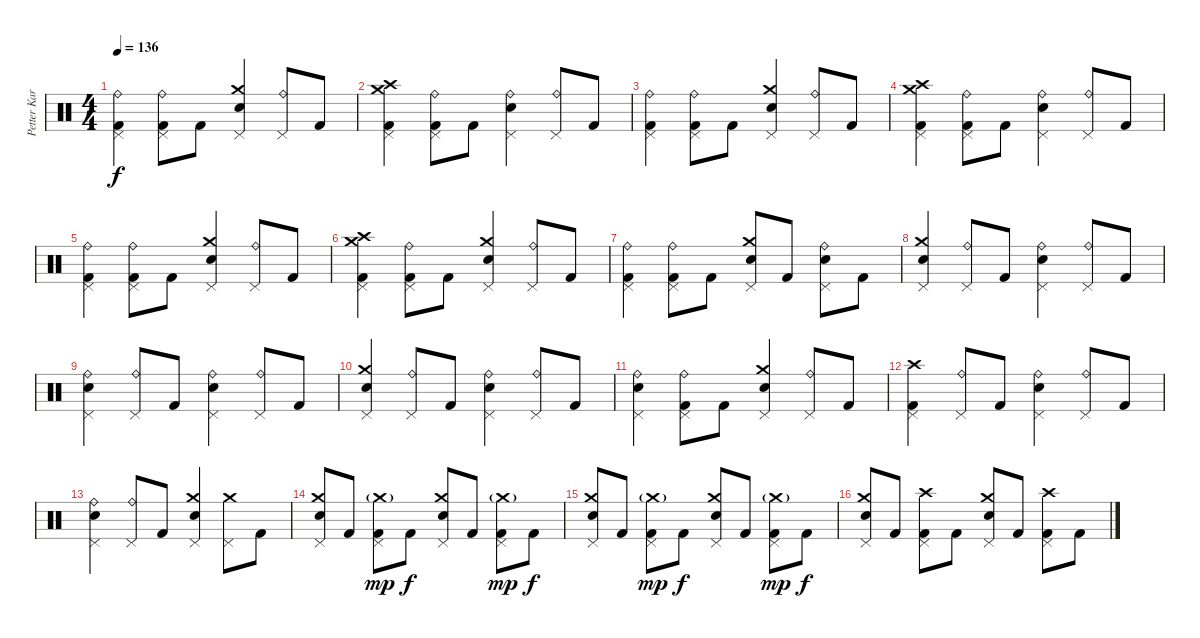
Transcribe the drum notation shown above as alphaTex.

\track ("Petter Karlsson" "Petter Kar") {instrument percussion}
\staff {score}
\articulation defaults
\ts (4 4)
\tempo 136
\clef neutral
\ks c
("Ride (bell)" "Pedal Hi-Hat (hit)" "Kick (hit) 2").4{dy f} ("Ride (bell)" "Pedal Hi-Hat (hit)" "Kick (hit) 2").8 "Kick (hit) 2".8 ("Crash medium (hit)" "Snare (hit) 2" "Pedal Hi-Hat (hit)").4 ("Ride (bell)" "Pedal Hi-Hat (hit)").8 "Kick (hit) 2".8 |
("Crash high (hit)" "Crash medium (hit)" "Pedal Hi-Hat (hit)" "Kick (hit) 2").4 ("Ride (bell)" "Pedal Hi-Hat (hit)" "Kick (hit) 2").8 "Kick (hit) 2".8 ("Ride (bell)" "Snare (hit) 2" "Pedal Hi-Hat (hit)").4 ("Ride (bell)" "Pedal Hi-Hat (hit)").8 "Kick (hit) 2".8 |
("Ride (bell)" "Pedal Hi-Hat (hit)" "Kick (hit) 2").4 ("Ride (bell)" "Pedal Hi-Hat (hit)" "Kick (hit) 2").8 "Kick (hit) 2".8 ("Crash medium (hit)" "Snare (hit) 2" "Pedal Hi-Hat (hit)").4 ("Ride (bell)" "Pedal Hi-Hat (hit)").8 "Kick (hit) 2".8 |
("Crash high (hit)" "Crash medium (hit)" "Pedal Hi-Hat (hit)" "Kick (hit) 2").4 ("Ride (bell)" "Pedal Hi-Hat (hit)" "Kick (hit) 2").8 "Kick (hit) 2".8 ("Ride (bell)" "Snare (hit) 2" "Pedal Hi-Hat (hit)").4 ("Ride (bell)" "Pedal Hi-Hat (hit)").8 "Kick (hit) 2".8 |
("Ride (bell)" "Pedal Hi-Hat (hit)" "Kick (hit) 2").4 ("Ride (bell)" "Pedal Hi-Hat (hit)" "Kick (hit) 2").8 "Kick (hit) 2".8 ("Crash medium (hit)" "Snare (hit) 2" "Pedal Hi-Hat (hit)").4 ("Ride (bell)" "Pedal Hi-Hat (hit)").8 "Kick (hit) 2".8 |
("Crash high (hit)" "Crash medium (hit)" "Pedal Hi-Hat (hit)" "Kick (hit) 2").4 ("Ride (bell)" "Pedal Hi-Hat (hit)" "Kick (hit) 2").8 "Kick (hit) 2".8 ("Crash medium (hit)" "Snare (hit) 2" "Pedal Hi-Hat (hit)").4 ("Ride (bell)" "Pedal Hi-Hat (hit)").8 "Kick (hit) 2".8 |
("Ride (bell)" "Pedal Hi-Hat (hit)" "Kick (hit) 2").4 ("Ride (bell)" "Pedal Hi-Hat (hit)" "Kick (hit) 2").8 "Kick (hit) 2".8 ("Crash medium (hit)" "Snare (hit) 2" "Pedal Hi-Hat (hit)").8 "Kick (hit) 2".8 ("Ride (bell)" "Snare (hit) 2" "Pedal Hi-Hat (hit)").8 "Kick (hit) 2".8 |
("Crash medium (hit)" "Snare (hit) 2" "Pedal Hi-Hat (hit)").4 ("Ride (bell)" "Pedal Hi-Hat (hit)").8 "Kick (hit) 2".8 ("Ride (bell)" "Snare (hit) 2" "Pedal Hi-Hat (hit)").4 ("Ride (bell)" "Pedal Hi-Hat (hit)").8 "Kick (hit) 2".8 |
("Ride (bell)" "Snare (hit) 2" "Pedal Hi-Hat (hit)").4 ("Ride (bell)" "Pedal Hi-Hat (hit)").8 "Kick (hit) 2".8 ("Ride (bell)" "Snare (hit) 2" "Pedal Hi-Hat (hit)").4 ("Ride (bell)" "Pedal Hi-Hat (hit)").8 "Kick (hit) 2".8 |
("Crash medium (hit)" "Snare (hit) 2" "Pedal Hi-Hat (hit)").4 ("Ride (bell)" "Pedal Hi-Hat (hit)").8 "Kick (hit) 2".8 ("Ride (bell)" "Snare (hit) 2" "Pedal Hi-Hat (hit)").4 ("Ride (bell)" "Pedal Hi-Hat (hit)").8 "Kick (hit) 2".8 |
("Ride (bell)" "Snare (hit) 2" "Pedal Hi-Hat (hit)").4 ("Ride (bell)" "Pedal Hi-Hat (hit)" "Kick (hit) 2").8 "Kick (hit) 2".8 ("Crash medium (hit)" "Snare (hit) 2" "Pedal Hi-Hat (hit)").4 ("Ride (bell)" "Pedal Hi-Hat (hit)").8 "Kick (hit) 2".8 |
("Crash high (hit)" "Pedal Hi-Hat (hit)" "Kick (hit) 2").4 ("Ride (bell)" "Pedal Hi-Hat (hit)").8 "Kick (hit) 2".8 ("Ride (bell)" "Snare (hit) 2" "Pedal Hi-Hat (hit)").4 ("Ride (bell)" "Pedal Hi-Hat (hit)").8 "Kick (hit) 2".8 |
("Ride (bell)" "Snare (hit) 2" "Pedal Hi-Hat (hit)").4 ("Ride (bell)" "Pedal Hi-Hat (hit)").8 "Kick (hit) 2".8 ("Crash medium (hit)" "Snare (hit) 2" "Pedal Hi-Hat (hit)").4 ("Crash medium (hit)" "Pedal Hi-Hat (hit)").8 "Kick (hit) 2".8 |
("Crash medium (hit)" "Snare (hit) 2" "Pedal Hi-Hat (hit)").8 "Kick (hit) 2".8 ("Crash medium (hit)"{g} "Pedal Hi-Hat (hit)" "Kick (hit) 2").8{dy mp} "Kick (hit) 2".8{dy f} ("Crash medium (hit)" "Snare (hit) 2" "Pedal Hi-Hat (hit)").8 "Kick (hit) 2".8 ("Crash medium (hit)"{g} "Pedal Hi-Hat (hit)" "Kick (hit) 2").8{dy mp} "Kick (hit) 2".8{dy f} |
("Crash medium (hit)" "Snare (hit) 2" "Pedal Hi-Hat (hit)").8 "Kick (hit) 2".8 ("Crash medium (hit)"{g} "Pedal Hi-Hat (hit)" "Kick (hit) 2").8{dy mp} "Kick (hit) 2".8{dy f} ("Crash medium (hit)" "Snare (hit) 2" "Pedal Hi-Hat (hit)").8 "Kick (hit) 2".8 ("Crash medium (hit)"{g} "Pedal Hi-Hat (hit)" "Kick (hit) 2").8{dy mp} "Kick (hit) 2".8{dy f} |
("Crash medium (hit)" "Snare (hit) 2" "Pedal Hi-Hat (hit)").8 "Kick (hit) 2".8 ("Crash high (hit)" "Pedal Hi-Hat (hit)" "Kick (hit) 2").8 "Kick (hit) 2".8 ("Crash medium (hit)" "Snare (hit) 2" "Pedal Hi-Hat (hit)").8 "Kick (hit) 2".8 ("Crash high (hit)" "Pedal Hi-Hat (hit)" "Kick (hit) 2").8 "Kick (hit) 2".8
